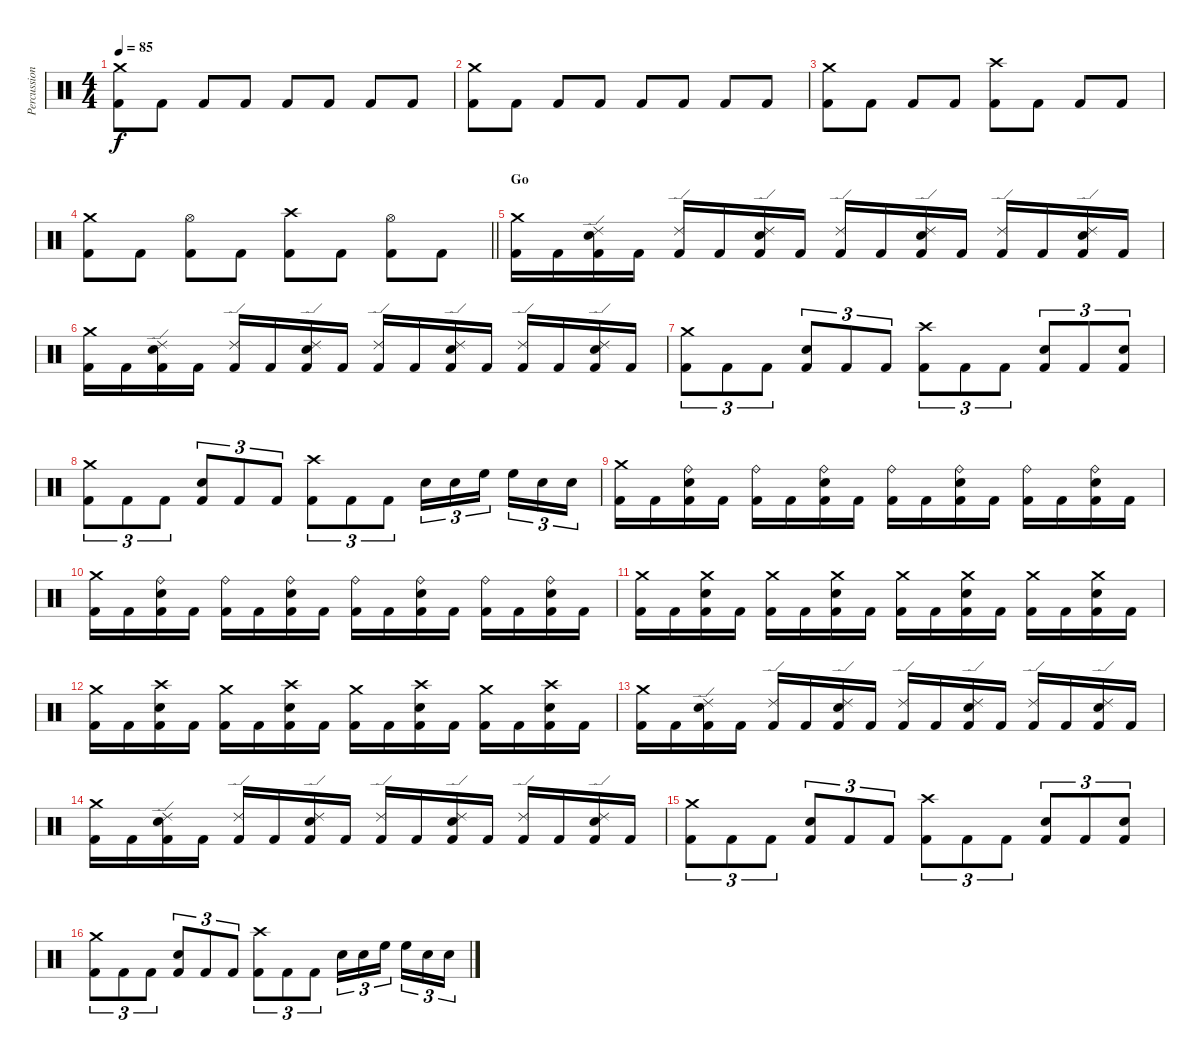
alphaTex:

\track ("Percussion" "Percussion") {instrument percussion}
\staff {score}
\articulation defaults
\ts (4 4)
\tempo 85
\clef neutral
\ks c
("Crash medium (hit)" "Kick (hit) 2").8{dy f} "Kick (hit) 2".8 "Kick (hit) 2".8 "Kick (hit) 2".8 "Kick (hit) 2".8 "Kick (hit) 2".8 "Kick (hit) 2".8 "Kick (hit) 2".8 |
("Crash medium (hit)" "Kick (hit) 2").8 "Kick (hit) 2".8 "Kick (hit) 2".8 "Kick (hit) 2".8 "Kick (hit) 2".8 "Kick (hit) 2".8 "Kick (hit) 2".8 "Kick (hit) 2".8 |
("Crash medium (hit)" "Kick (hit) 2").8 "Kick (hit) 2".8 "Kick (hit) 2".8 "Kick (hit) 2".8 ("Crash high (hit)" "Kick (hit) 2").8 "Kick (hit) 2".8 "Kick (hit) 2".8 "Kick (hit) 2".8 |
\barLineRight lightlight
("Crash medium (hit)" "Kick (hit) 2").8 "Kick (hit) 2".8 ("Hi-Hat (open)" "Kick (hit) 2").8 "Kick (hit) 2".8 ("Crash high (hit)" "Kick (hit) 2").8 "Kick (hit) 2".8 ("Hi-Hat (open)" "Kick (hit) 2").8 "Kick (hit) 2".8 |
\section ("" "Go")
("Crash medium (hit)" "Kick (hit) 2").16 "Kick (hit) 2".16 ("Ride (edge) 2" "Electric Snare (hit)" "Kick (hit) 2").16 "Kick (hit) 2".16 ("Ride (edge) 2" "Kick (hit) 2").16 "Kick (hit) 2".16 ("Ride (edge) 2" "Electric Snare (hit)" "Kick (hit) 2").16 "Kick (hit) 2".16 ("Ride (edge) 2" "Kick (hit) 2").16 "Kick (hit) 2".16 ("Ride (edge) 2" "Electric Snare (hit)" "Kick (hit) 2").16 "Kick (hit) 2".16 ("Ride (edge) 2" "Kick (hit) 2").16 "Kick (hit) 2".16 ("Ride (edge) 2" "Electric Snare (hit)" "Kick (hit) 2").16 "Kick (hit) 2".16 |
("Crash medium (hit)" "Kick (hit) 2").16 "Kick (hit) 2".16 ("Ride (edge) 2" "Electric Snare (hit)" "Kick (hit) 2").16 "Kick (hit) 2".16 ("Ride (edge) 2" "Kick (hit) 2").16 "Kick (hit) 2".16 ("Ride (edge) 2" "Electric Snare (hit)" "Kick (hit) 2").16 "Kick (hit) 2".16 ("Ride (edge) 2" "Kick (hit) 2").16 "Kick (hit) 2".16 ("Ride (edge) 2" "Electric Snare (hit)" "Kick (hit) 2").16 "Kick (hit) 2".16 ("Ride (edge) 2" "Kick (hit) 2").16 "Kick (hit) 2".16 ("Ride (edge) 2" "Electric Snare (hit)" "Kick (hit) 2").16 "Kick (hit) 2".16 |
("Crash medium (hit)" "Kick (hit) 2").8{tu (3 2)} "Kick (hit) 2".8{tu (3 2)} "Kick (hit) 2".8{tu (3 2)} ("Electric Snare (hit)" "Kick (hit) 2").8{tu (3 2)} "Kick (hit) 2".8{tu (3 2)} "Kick (hit) 2".8{tu (3 2)} ("Crash high (hit)" "Kick (hit) 2").8{tu (3 2)} "Kick (hit) 2".8{tu (3 2)} "Kick (hit) 2".8{tu (3 2)} ("Electric Snare (hit)" "Kick (hit) 2").8{tu (3 2)} "Kick (hit) 2".8{tu (3 2)} ("Electric Snare (hit)" "Kick (hit) 2").8{tu (3 2)} |
("Crash medium (hit)" "Kick (hit) 2").8{tu (3 2)} "Kick (hit) 2".8{tu (3 2)} "Kick (hit) 2".8{tu (3 2)} ("Electric Snare (hit)" "Kick (hit) 2").8{tu (3 2)} "Kick (hit) 2".8{tu (3 2)} "Kick (hit) 2".8{tu (3 2)} ("Crash high (hit)" "Kick (hit) 2").8{tu (3 2)} "Kick (hit) 2".8{tu (3 2)} "Kick (hit) 2".8{tu (3 2)} "Electric Snare (hit)".16{tu (3 2)} "Electric Snare (hit)".16{tu (3 2)} "High Floor Tom (hit)".16{tu (3 2) beam splitsecondary} "High Floor Tom (hit)".16{tu (3 2)} "Electric Snare (hit)".16{tu (3 2)} "Electric Snare (hit)".16{tu (3 2)} |
("Crash medium (hit)" "Kick (hit) 2").16 "Kick (hit) 2".16 ("Ride (bell)" "Electric Snare (hit)" "Kick (hit) 2").16 "Kick (hit) 2".16 ("Ride (bell)" "Kick (hit) 2").16 "Kick (hit) 2".16 ("Ride (bell)" "Electric Snare (hit)" "Kick (hit) 2").16 "Kick (hit) 2".16 ("Ride (bell)" "Kick (hit) 2").16 "Kick (hit) 2".16 ("Ride (bell)" "Electric Snare (hit)" "Kick (hit) 2").16 "Kick (hit) 2".16 ("Ride (bell)" "Kick (hit) 2").16 "Kick (hit) 2".16 ("Ride (bell)" "Electric Snare (hit)" "Kick (hit) 2").16 "Kick (hit) 2".16 |
("Crash medium (hit)" "Kick (hit) 2").16 "Kick (hit) 2".16 ("Ride (bell)" "Electric Snare (hit)" "Kick (hit) 2").16 "Kick (hit) 2".16 ("Ride (bell)" "Kick (hit) 2").16 "Kick (hit) 2".16 ("Ride (bell)" "Electric Snare (hit)" "Kick (hit) 2").16 "Kick (hit) 2".16 ("Ride (bell)" "Kick (hit) 2").16 "Kick (hit) 2".16 ("Ride (bell)" "Electric Snare (hit)" "Kick (hit) 2").16 "Kick (hit) 2".16 ("Ride (bell)" "Kick (hit) 2").16 "Kick (hit) 2".16 ("Ride (bell)" "Electric Snare (hit)" "Kick (hit) 2").16 "Kick (hit) 2".16 |
("Crash medium (hit)" "Kick (hit) 2").16 "Kick (hit) 2".16 ("Crash medium (hit)" "Electric Snare (hit)" "Kick (hit) 2").16 "Kick (hit) 2".16 ("Crash medium (hit)" "Kick (hit) 2").16 "Kick (hit) 2".16 ("Crash medium (hit)" "Electric Snare (hit)" "Kick (hit) 2").16 "Kick (hit) 2".16 ("Crash medium (hit)" "Kick (hit) 2").16 "Kick (hit) 2".16 ("Crash medium (hit)" "Electric Snare (hit)" "Kick (hit) 2").16 "Kick (hit) 2".16 ("Crash medium (hit)" "Kick (hit) 2").16 "Kick (hit) 2".16 ("Crash medium (hit)" "Electric Snare (hit)" "Kick (hit) 2").16 "Kick (hit) 2".16 |
("Crash medium (hit)" "Kick (hit) 2").16 "Kick (hit) 2".16 ("Crash high (hit)" "Electric Snare (hit)" "Kick (hit) 2").16 "Kick (hit) 2".16 ("Crash medium (hit)" "Kick (hit) 2").16 "Kick (hit) 2".16 ("Crash high (hit)" "Electric Snare (hit)" "Kick (hit) 2").16 "Kick (hit) 2".16 ("Crash medium (hit)" "Kick (hit) 2").16 "Kick (hit) 2".16 ("Crash high (hit)" "Electric Snare (hit)" "Kick (hit) 2").16 "Kick (hit) 2".16 ("Crash medium (hit)" "Kick (hit) 2").16 "Kick (hit) 2".16 ("Crash high (hit)" "Electric Snare (hit)" "Kick (hit) 2").16 "Kick (hit) 2".16 |
("Crash medium (hit)" "Kick (hit) 2").16 "Kick (hit) 2".16 ("Ride (edge) 2" "Electric Snare (hit)" "Kick (hit) 2").16 "Kick (hit) 2".16 ("Ride (edge) 2" "Kick (hit) 2").16 "Kick (hit) 2".16 ("Ride (edge) 2" "Electric Snare (hit)" "Kick (hit) 2").16 "Kick (hit) 2".16 ("Ride (edge) 2" "Kick (hit) 2").16 "Kick (hit) 2".16 ("Ride (edge) 2" "Electric Snare (hit)" "Kick (hit) 2").16 "Kick (hit) 2".16 ("Ride (edge) 2" "Kick (hit) 2").16 "Kick (hit) 2".16 ("Ride (edge) 2" "Electric Snare (hit)" "Kick (hit) 2").16 "Kick (hit) 2".16 |
("Crash medium (hit)" "Kick (hit) 2").16 "Kick (hit) 2".16 ("Ride (edge) 2" "Electric Snare (hit)" "Kick (hit) 2").16 "Kick (hit) 2".16 ("Ride (edge) 2" "Kick (hit) 2").16 "Kick (hit) 2".16 ("Ride (edge) 2" "Electric Snare (hit)" "Kick (hit) 2").16 "Kick (hit) 2".16 ("Ride (edge) 2" "Kick (hit) 2").16 "Kick (hit) 2".16 ("Ride (edge) 2" "Electric Snare (hit)" "Kick (hit) 2").16 "Kick (hit) 2".16 ("Ride (edge) 2" "Kick (hit) 2").16 "Kick (hit) 2".16 ("Ride (edge) 2" "Electric Snare (hit)" "Kick (hit) 2").16 "Kick (hit) 2".16 |
("Crash medium (hit)" "Kick (hit) 2").8{tu (3 2)} "Kick (hit) 2".8{tu (3 2)} "Kick (hit) 2".8{tu (3 2)} ("Electric Snare (hit)" "Kick (hit) 2").8{tu (3 2)} "Kick (hit) 2".8{tu (3 2)} "Kick (hit) 2".8{tu (3 2)} ("Crash high (hit)" "Kick (hit) 2").8{tu (3 2)} "Kick (hit) 2".8{tu (3 2)} "Kick (hit) 2".8{tu (3 2)} ("Electric Snare (hit)" "Kick (hit) 2").8{tu (3 2)} "Kick (hit) 2".8{tu (3 2)} ("Electric Snare (hit)" "Kick (hit) 2").8{tu (3 2)} |
("Crash medium (hit)" "Kick (hit) 2").8{tu (3 2)} "Kick (hit) 2".8{tu (3 2)} "Kick (hit) 2".8{tu (3 2)} ("Electric Snare (hit)" "Kick (hit) 2").8{tu (3 2)} "Kick (hit) 2".8{tu (3 2)} "Kick (hit) 2".8{tu (3 2)} ("Crash high (hit)" "Kick (hit) 2").8{tu (3 2)} "Kick (hit) 2".8{tu (3 2)} "Kick (hit) 2".8{tu (3 2)} "Electric Snare (hit)".16{tu (3 2)} "Electric Snare (hit)".16{tu (3 2)} "High Floor Tom (hit)".16{tu (3 2) beam splitsecondary} "High Floor Tom (hit)".16{tu (3 2)} "Electric Snare (hit)".16{tu (3 2)} "Electric Snare (hit)".16{tu (3 2)}
